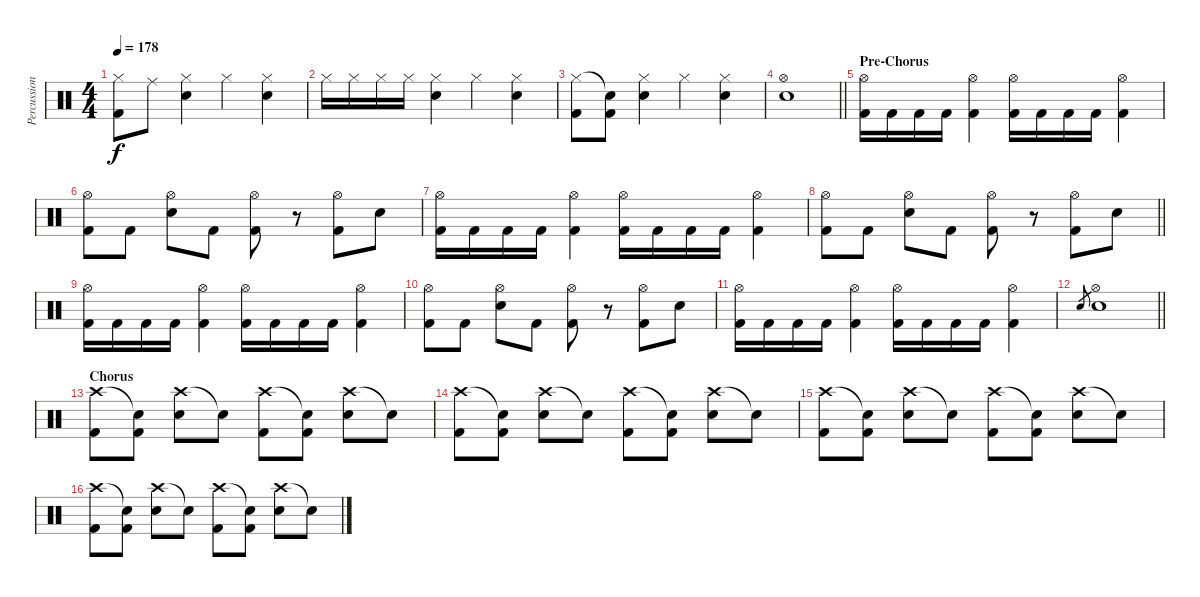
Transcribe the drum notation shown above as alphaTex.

\track ("Percussion" "Percussion") {instrument percussion}
\staff {score}
\articulation defaults
\ts (4 4)
\tempo 178
\clef neutral
\ks c
("Hi-Hat (closed)" "Kick (hit) 2").8{dy f} "Ride (middle)".8 ("Hi-Hat (closed)" "Snare (hit) 2").4 "Hi-Hat (closed)".4 ("Hi-Hat (closed)" "Snare (hit) 2").4 |
"Hi-Hat (closed)".16 "Hi-Hat (closed)".16 "Hi-Hat (closed)".16 "Hi-Hat (closed)".16 ("Hi-Hat (closed)" "Snare (hit) 2").4 "Hi-Hat (closed)".4 ("Hi-Hat (closed)" "Snare (hit) 2").4 |
("Hi-Hat (closed)" "Kick (hit) 2").8 ("Snare (hit)"{t} "Kick (hit) 2").8 ("Hi-Hat (closed)" "Snare (hit) 2").4 "Hi-Hat (closed)".4 ("Hi-Hat (closed)" "Snare (hit) 2").4 |
\barLineRight lightlight
("Hi-Hat (open)" "Snare (hit) 2").1 |
\section ("" "Pre-Chorus")
("Hi-Hat (open)" "Kick (hit) 2").16 "Kick (hit) 2".16 "Kick (hit) 2".16 "Kick (hit) 2".16 ("Hi-Hat (open)" "Kick (hit) 2").4 ("Hi-Hat (open)" "Kick (hit) 2").16 "Kick (hit) 2".16 "Kick (hit) 2".16 "Kick (hit) 2".16 ("Hi-Hat (open)" "Kick (hit) 2").4 |
("Hi-Hat (open)" "Kick (hit) 2").8 "Kick (hit) 2".8 ("Hi-Hat (open)" "Snare (hit) 2").8 "Kick (hit) 2".8 ("Hi-Hat (open)" "Kick (hit) 2").8 r.8 ("Hi-Hat (open)" "Kick (hit) 2").8 "Snare (hit) 2".8 |
("Hi-Hat (open)" "Kick (hit) 2").16 "Kick (hit) 2".16 "Kick (hit) 2".16 "Kick (hit) 2".16 ("Hi-Hat (open)" "Kick (hit) 2").4 ("Hi-Hat (open)" "Kick (hit) 2").16 "Kick (hit) 2".16 "Kick (hit) 2".16 "Kick (hit) 2".16 ("Hi-Hat (open)" "Kick (hit) 2").4 |
\barLineRight lightlight
("Hi-Hat (open)" "Kick (hit) 2").8 "Kick (hit) 2".8 ("Hi-Hat (open)" "Snare (hit) 2").8 "Kick (hit) 2".8 ("Hi-Hat (open)" "Kick (hit) 2").8 r.8 ("Hi-Hat (open)" "Kick (hit) 2").8 "Snare (hit) 2".8 |
("Hi-Hat (open)" "Kick (hit) 2").16 "Kick (hit) 2".16 "Kick (hit) 2".16 "Kick (hit) 2".16 ("Hi-Hat (open)" "Kick (hit) 2").4 ("Hi-Hat (open)" "Kick (hit) 2").16 "Kick (hit) 2".16 "Kick (hit) 2".16 "Kick (hit) 2".16 ("Hi-Hat (open)" "Kick (hit) 2").4 |
("Hi-Hat (open)" "Kick (hit) 2").8 "Kick (hit) 2".8 ("Hi-Hat (open)" "Snare (hit) 2").8 "Kick (hit) 2".8 ("Hi-Hat (open)" "Kick (hit) 2").8 r.8 ("Hi-Hat (open)" "Kick (hit) 2").8 "Snare (hit) 2".8 |
("Hi-Hat (open)" "Kick (hit) 2").16 "Kick (hit) 2".16 "Kick (hit) 2".16 "Kick (hit) 2".16 ("Hi-Hat (open)" "Kick (hit) 2").4 ("Hi-Hat (open)" "Kick (hit) 2").16 "Kick (hit) 2".16 "Kick (hit) 2".16 "Kick (hit) 2".16 ("Hi-Hat (open)" "Kick (hit) 2").4 |
\barLineRight lightlight "Snare (hit) 2".8{gr}
("Hi-Hat (open)" "Snare (hit) 2").1 |
\section ("" "Chorus")
("Crash high (hit)" "Kick (hit) 2").8 ("Snare (hit)"{t} "Kick (hit) 2").8 ("Crash high (hit)" "Snare (hit) 2").8 "Snare (hit)"{t}.8 ("Crash high (hit)" "Kick (hit) 2").8 ("Snare (hit)"{t} "Kick (hit) 2").8 ("Crash high (hit)" "Snare (hit) 2").8 "Snare (hit)"{t}.8 |
("Crash high (hit)" "Kick (hit) 2").8 ("Snare (hit)"{t} "Kick (hit) 2").8 ("Crash high (hit)" "Snare (hit) 2").8 "Snare (hit)"{t}.8 ("Crash high (hit)" "Kick (hit) 2").8 ("Snare (hit)"{t} "Kick (hit) 2").8 ("Crash high (hit)" "Snare (hit) 2").8 "Snare (hit)"{t}.8 |
("Crash high (hit)" "Kick (hit) 2").8 ("Snare (hit)"{t} "Kick (hit) 2").8 ("Crash high (hit)" "Snare (hit) 2").8 "Snare (hit)"{t}.8 ("Crash high (hit)" "Kick (hit) 2").8 ("Snare (hit)"{t} "Kick (hit) 2").8 ("Crash high (hit)" "Snare (hit) 2").8 "Snare (hit)"{t}.8 |
("Crash high (hit)" "Kick (hit) 2").8 ("Snare (hit)"{t} "Kick (hit) 2").8 ("Crash high (hit)" "Snare (hit) 2").8 "Snare (hit)"{t}.8 ("Crash high (hit)" "Kick (hit) 2").8 ("Snare (hit)"{t} "Kick (hit) 2").8 ("Crash high (hit)" "Snare (hit) 2").8 "Snare (hit)"{t}.8
